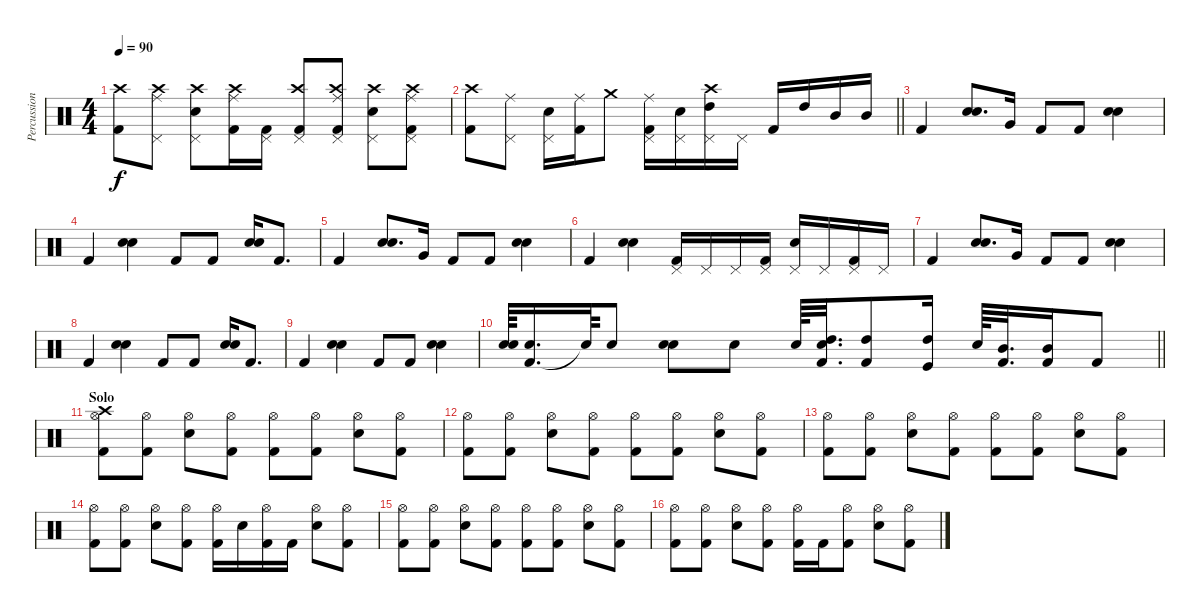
\track ("Percussion" "Percussion") {instrument percussion}
\staff {score}
\articulation defaults
\ts (4 4)
\tempo 90
\clef neutral
\ks c
("Kick (hit) 2" "Crash high (hit)").8{dy f} ("Pedal Hi-Hat (hit)" "Crash high (hit)" "Ride (middle)").8 ("Snare (hit) 2" "Pedal Hi-Hat (hit)" "Crash high (hit)").8 ("Kick (hit) 2" "Crash high (hit)" "Ride (middle)").16 ("Kick (hit) 2" "Pedal Hi-Hat (hit)").16 ("Kick (hit) 2" "Pedal Hi-Hat (hit)" "Crash high (hit)").8 ("Kick (hit) 2" "Pedal Hi-Hat (hit)" "Crash high (hit)" "Ride (middle)").8 ("Snare (hit) 2" "Pedal Hi-Hat (hit)" "Crash high (hit)").8 ("Kick (hit) 2" "Pedal Hi-Hat (hit)" "Crash high (hit)" "Ride (middle)").8 |
\barLineRight lightlight
("Kick (hit) 2" "Crash high (hit)").8 ("Pedal Hi-Hat (hit)" "Ride (middle)").8 ("Snare (hit) 2" "Pedal Hi-Hat (hit)").16 ("Kick (hit) 2" "Ride (middle)").16 "Crash medium (hit)".8 ("Kick (hit) 2" "Pedal Hi-Hat (hit)" "Ride (middle)").16 ("Snare (hit) 2" "Pedal Hi-Hat (hit)").16 ("High Tom (hit)" "Pedal Hi-Hat (hit)" "Crash high (hit)").16 "Pedal Hi-Hat (hit)".16 "Kick (hit) 2".16 "High Tom (hit)".16 "Mid Tom (hit)".16 "Mid Tom (hit)".16 |
"Kick (hit) 2".4 ("Hand Clap (hit)" "Snare (hit) 2").8{d} "Very Low Tom (hit)".16 "Kick (hit) 2".8 "Kick (hit) 2".8 ("Hand Clap (hit)" "Snare (hit) 2").4 |
"Kick (hit) 2".4 ("Hand Clap (hit)" "Snare (hit) 2").4 "Kick (hit) 2".8 "Kick (hit) 2".8 ("Hand Clap (hit)" "Snare (hit) 2").16 "Kick (hit) 2".8{d} |
"Kick (hit) 2".4 ("Hand Clap (hit)" "Snare (hit) 2").8{d} "Very Low Tom (hit)".16 "Kick (hit) 2".8 "Kick (hit) 2".8 ("Hand Clap (hit)" "Snare (hit) 2").4 |
"Kick (hit) 2".4 ("Hand Clap (hit)" "Snare (hit) 2").4 ("Kick (hit) 2" "Pedal Hi-Hat (hit)").16 "Pedal Hi-Hat (hit)".16 "Pedal Hi-Hat (hit)".16 ("Kick (hit) 2" "Pedal Hi-Hat (hit)").16 ("Snare (hit) 2" "Pedal Hi-Hat (hit)").16 "Pedal Hi-Hat (hit)".16 ("Kick (hit) 2" "Pedal Hi-Hat (hit)").16 "Pedal Hi-Hat (hit)".16 |
"Kick (hit) 2".4 ("Hand Clap (hit)" "Snare (hit) 2").8{d} "Very Low Tom (hit)".16 "Kick (hit) 2".8 "Kick (hit) 2".8 ("Hand Clap (hit)" "Snare (hit) 2").4 |
"Kick (hit) 2".4 ("Hand Clap (hit)" "Snare (hit) 2").4 "Kick (hit) 2".8 "Kick (hit) 2".8 ("Hand Clap (hit)" "Snare (hit) 2").16 "Kick (hit) 2".8{d} |
"Kick (hit) 2".4 ("Hand Clap (hit)" "Snare (hit) 2").4 "Kick (hit) 2".8 "Kick (hit) 2".8 ("Hand Clap (hit)" "Snare (hit) 2").4 |
\barLineRight lightlight
("Snare (hit) 2" "Hand Clap (hit)").64 ("Kick (hit) 2" "Snare (hit) 2").16{d} "Snare (hit)"{t}.64 "Snare (hit) 2".8 ("Hand Clap (hit)" "Snare (hit) 2").8 "Snare (hit) 2".8 "Snare (hit) 2".64 ("Kick (hit) 2" "Snare (hit) 2" "High Tom (hit)").32{d} ("Kick (hit) 2" "High Tom (hit)").8 ("Kick (hit)" "High Tom (hit)").16 "Snare (hit) 2".64 ("Kick (hit) 2" "Mid Tom (hit)").32{d} ("Kick (hit) 2" "Mid Tom (hit)").16 "Kick (hit) 2".8 |
\section ("" "Solo")
("Kick (hit) 2" "Hi-Hat (open)" "Crash high (hit)").8 ("Kick (hit) 2" "Hi-Hat (open)").8 ("Electric Snare (hit)" "Hi-Hat (open)").8 ("Kick (hit) 2" "Hi-Hat (open)").8 ("Kick (hit) 2" "Hi-Hat (open)").8 ("Kick (hit) 2" "Hi-Hat (open)").8 ("Electric Snare (hit)" "Hi-Hat (open)").8 ("Kick (hit) 2" "Hi-Hat (open)").8 |
("Kick (hit) 2" "Hi-Hat (open)").8 ("Kick (hit) 2" "Hi-Hat (open)").8 ("Electric Snare (hit)" "Hi-Hat (open)").8 ("Kick (hit) 2" "Hi-Hat (open)").8 ("Kick (hit) 2" "Hi-Hat (open)").8 ("Kick (hit) 2" "Hi-Hat (open)").8 ("Electric Snare (hit)" "Hi-Hat (open)").8 ("Kick (hit) 2" "Hi-Hat (open)").8 |
("Kick (hit) 2" "Hi-Hat (open)").8 ("Kick (hit) 2" "Hi-Hat (open)").8 ("Electric Snare (hit)" "Hi-Hat (open)").8 ("Kick (hit) 2" "Hi-Hat (open)").8 ("Kick (hit) 2" "Hi-Hat (open)").8 ("Kick (hit) 2" "Hi-Hat (open)").8 ("Electric Snare (hit)" "Hi-Hat (open)").8 ("Kick (hit) 2" "Hi-Hat (open)").8 |
("Kick (hit) 2" "Hi-Hat (open)").8 ("Kick (hit) 2" "Hi-Hat (open)").8 ("Electric Snare (hit)" "Hi-Hat (open)").8 ("Kick (hit) 2" "Hi-Hat (open)").8 ("Kick (hit) 2" "Hi-Hat (open)").16 "Snare (hit) 2".16 ("Kick (hit) 2" "Hi-Hat (open)").16 "Kick (hit) 2".16 ("Electric Snare (hit)" "Hi-Hat (open)").8 ("Kick (hit) 2" "Hi-Hat (open)").8 |
("Kick (hit) 2" "Hi-Hat (open)").8 ("Kick (hit) 2" "Hi-Hat (open)").8 ("Electric Snare (hit)" "Hi-Hat (open)").8 ("Kick (hit) 2" "Hi-Hat (open)").8 ("Kick (hit) 2" "Hi-Hat (open)").8 ("Kick (hit) 2" "Hi-Hat (open)").8 ("Electric Snare (hit)" "Hi-Hat (open)").8 ("Kick (hit) 2" "Hi-Hat (open)").8 |
("Kick (hit) 2" "Hi-Hat (open)").8 ("Kick (hit) 2" "Hi-Hat (open)").8 ("Electric Snare (hit)" "Hi-Hat (open)").8 ("Kick (hit) 2" "Hi-Hat (open)").8 ("Kick (hit) 2" "Hi-Hat (open)").16 "Kick (hit) 2".16 ("Kick (hit) 2" "Hi-Hat (open)").8 ("Electric Snare (hit)" "Hi-Hat (open)").8 ("Kick (hit) 2" "Hi-Hat (open)").8
